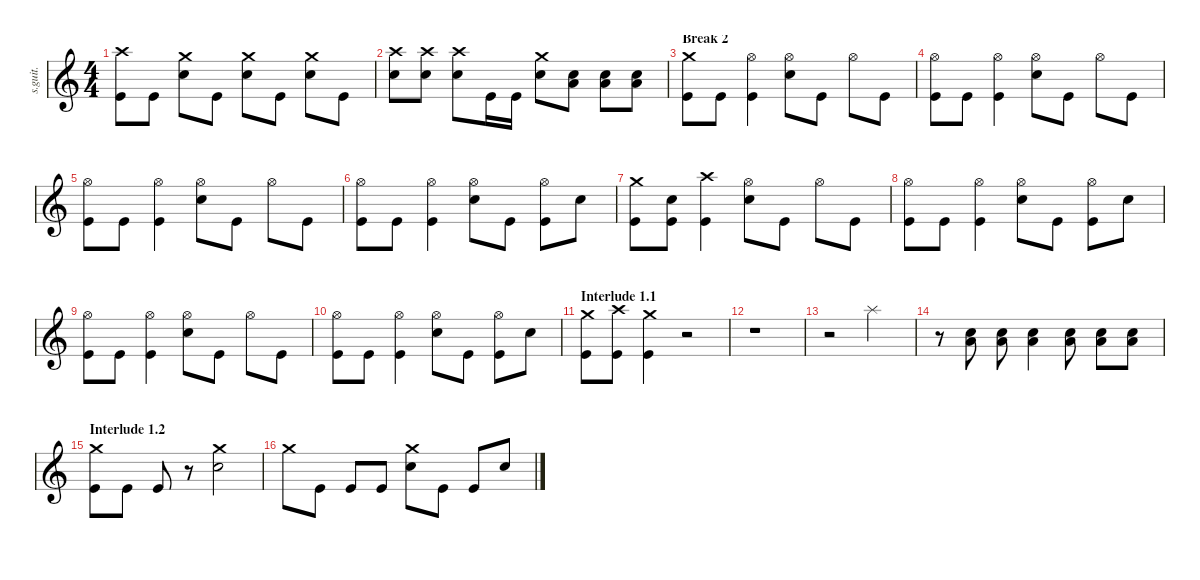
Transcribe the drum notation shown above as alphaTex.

\defaultSystemsLayout 4
\hideDynamics
\bracketExtendMode nobrackets
\track ("Joey Jordison" "s.guit.") {instrument percussion}
\staff {score}
\articulation defaults
\ts (4 4)
\tempo (210 hide)
\clef g2
\ks c
("Crash high (hit)" "Kick (hit)").8{lyrics (0 "") lyrics (1 "") lyrics (2 "") lyrics (3 "") lyrics (4 "") dy ff} "Kick (hit)".8{lyrics (0 "") lyrics (1 "") lyrics (2 "") lyrics (3 "") lyrics (4 "")} ("Crash medium (hit)" "Snare (hit) 2").8{lyrics (0 "") lyrics (1 "") lyrics (2 "") lyrics (3 "") lyrics (4 "")} "Kick (hit)".8{lyrics (0 "") lyrics (1 "") lyrics (2 "") lyrics (3 "") lyrics (4 "")} ("Crash medium (hit)" "Snare (hit) 2").8{lyrics (0 "") lyrics (1 "") lyrics (2 "") lyrics (3 "") lyrics (4 "")} "Kick (hit)".8{lyrics (0 "") lyrics (1 "") lyrics (2 "") lyrics (3 "") lyrics (4 "")} ("Crash medium (hit)" "Snare (hit) 2").8{lyrics (0 "") lyrics (1 "") lyrics (2 "") lyrics (3 "") lyrics (4 "")} "Kick (hit)".8{lyrics (0 "") lyrics (1 "") lyrics (2 "") lyrics (3 "") lyrics (4 "")} |
("Crash high (hit)" "Snare (hit) 2").8{lyrics (0 "") lyrics (1 "") lyrics (2 "") lyrics (3 "") lyrics (4 "")} ("Crash high (hit)" "Snare (hit) 2").8{lyrics (0 "") lyrics (1 "") lyrics (2 "") lyrics (3 "") lyrics (4 "")} ("Crash high (hit)" "Snare (hit) 2").8{lyrics (0 "") lyrics (1 "") lyrics (2 "") lyrics (3 "") lyrics (4 "")} "Kick (hit)".16{lyrics (0 "") lyrics (1 "") lyrics (2 "") lyrics (3 "") lyrics (4 "")} "Kick (hit)".16{lyrics (0 "") lyrics (1 "") lyrics (2 "") lyrics (3 "") lyrics (4 "")} ("Crash medium (hit)" "Snare (hit) 2").8{lyrics (0 "") lyrics (1 "") lyrics (2 "") lyrics (3 "") lyrics (4 "")} ("Snare (hit) 2" "Low Floor Tom (hit)").8{lyrics (0 "") lyrics (1 "") lyrics (2 "") lyrics (3 "") lyrics (4 "")} ("Snare (hit) 2" "Low Floor Tom (hit)").8{lyrics (0 "") lyrics (1 "") lyrics (2 "") lyrics (3 "") lyrics (4 "")} ("Snare (hit) 2" "Low Floor Tom (hit)").8{lyrics (0 "") lyrics (1 "") lyrics (2 "") lyrics (3 "") lyrics (4 "")} |
\section ("" "Break 2")
("Crash medium (hit)" "Kick (hit)").8{lyrics (0 "") lyrics (1 "") lyrics (2 "") lyrics (3 "") lyrics (4 "")} "Kick (hit)".8{lyrics (0 "") lyrics (1 "") lyrics (2 "") lyrics (3 "") lyrics (4 "")} ("Kick (hit)" "Hi-Hat (open)").4{lyrics (0 "") lyrics (1 "") lyrics (2 "") lyrics (3 "") lyrics (4 "")} ("Hi-Hat (open)" "Snare (hit) 2").8{lyrics (0 "") lyrics (1 "") lyrics (2 "") lyrics (3 "") lyrics (4 "")} "Kick (hit)".8{lyrics (0 "") lyrics (1 "") lyrics (2 "") lyrics (3 "") lyrics (4 "")} "Hi-Hat (open)".8{lyrics (0 "") lyrics (1 "") lyrics (2 "") lyrics (3 "") lyrics (4 "")} "Kick (hit)".8{lyrics (0 "") lyrics (1 "") lyrics (2 "") lyrics (3 "") lyrics (4 "")} |
("Hi-Hat (open)" "Kick (hit)").8{lyrics (0 "") lyrics (1 "") lyrics (2 "") lyrics (3 "") lyrics (4 "")} "Kick (hit)".8{lyrics (0 "") lyrics (1 "") lyrics (2 "") lyrics (3 "") lyrics (4 "")} ("Hi-Hat (open)" "Kick (hit)").4{lyrics (0 "") lyrics (1 "") lyrics (2 "") lyrics (3 "") lyrics (4 "")} ("Hi-Hat (open)" "Snare (hit) 2").8{lyrics (0 "") lyrics (1 "") lyrics (2 "") lyrics (3 "") lyrics (4 "")} "Kick (hit)".8{lyrics (0 "") lyrics (1 "") lyrics (2 "") lyrics (3 "") lyrics (4 "")} "Hi-Hat (open)".8{lyrics (0 "") lyrics (1 "") lyrics (2 "") lyrics (3 "") lyrics (4 "")} "Kick (hit)".8{lyrics (0 "") lyrics (1 "") lyrics (2 "") lyrics (3 "") lyrics (4 "")} |
("Hi-Hat (open)" "Kick (hit)").8{lyrics (0 "") lyrics (1 "") lyrics (2 "") lyrics (3 "") lyrics (4 "")} "Kick (hit)".8{lyrics (0 "") lyrics (1 "") lyrics (2 "") lyrics (3 "") lyrics (4 "")} ("Hi-Hat (open)" "Kick (hit)").4{lyrics (0 "") lyrics (1 "") lyrics (2 "") lyrics (3 "") lyrics (4 "")} ("Hi-Hat (open)" "Snare (hit) 2").8{lyrics (0 "") lyrics (1 "") lyrics (2 "") lyrics (3 "") lyrics (4 "")} "Kick (hit)".8{lyrics (0 "") lyrics (1 "") lyrics (2 "") lyrics (3 "") lyrics (4 "")} "Hi-Hat (open)".8{lyrics (0 "") lyrics (1 "") lyrics (2 "") lyrics (3 "") lyrics (4 "")} "Kick (hit)".8{lyrics (0 "") lyrics (1 "") lyrics (2 "") lyrics (3 "") lyrics (4 "")} |
("Hi-Hat (open)" "Kick (hit)").8{lyrics (0 "") lyrics (1 "") lyrics (2 "") lyrics (3 "") lyrics (4 "")} "Kick (hit)".8{lyrics (0 "") lyrics (1 "") lyrics (2 "") lyrics (3 "") lyrics (4 "")} ("Hi-Hat (open)" "Kick (hit)").4{lyrics (0 "") lyrics (1 "") lyrics (2 "") lyrics (3 "") lyrics (4 "")} ("Hi-Hat (open)" "Snare (hit) 2").8{lyrics (0 "") lyrics (1 "") lyrics (2 "") lyrics (3 "") lyrics (4 "")} "Kick (hit)".8{lyrics (0 "") lyrics (1 "") lyrics (2 "") lyrics (3 "") lyrics (4 "")} ("Hi-Hat (open)" "Kick (hit)").8{lyrics (0 "") lyrics (1 "") lyrics (2 "") lyrics (3 "") lyrics (4 "")} "Snare (hit) 2".8{lyrics (0 "") lyrics (1 "") lyrics (2 "") lyrics (3 "") lyrics (4 "")} |
("Crash medium (hit)" "Kick (hit)").8{lyrics (0 "") lyrics (1 "") lyrics (2 "") lyrics (3 "") lyrics (4 "")} ("Kick (hit)" "Snare (hit) 2").8{lyrics (0 "") lyrics (1 "") lyrics (2 "") lyrics (3 "") lyrics (4 "")} ("Crash high (hit)" "Kick (hit)").4{lyrics (0 "") lyrics (1 "") lyrics (2 "") lyrics (3 "") lyrics (4 "")} ("Hi-Hat (open)" "Snare (hit) 2").8{lyrics (0 "") lyrics (1 "") lyrics (2 "") lyrics (3 "") lyrics (4 "")} "Kick (hit)".8{lyrics (0 "") lyrics (1 "") lyrics (2 "") lyrics (3 "") lyrics (4 "")} "Hi-Hat (open)".8{lyrics (0 "") lyrics (1 "") lyrics (2 "") lyrics (3 "") lyrics (4 "")} "Kick (hit)".8{lyrics (0 "") lyrics (1 "") lyrics (2 "") lyrics (3 "") lyrics (4 "")} |
("Hi-Hat (open)" "Kick (hit)").8{lyrics (0 "") lyrics (1 "") lyrics (2 "") lyrics (3 "") lyrics (4 "")} "Kick (hit)".8{lyrics (0 "") lyrics (1 "") lyrics (2 "") lyrics (3 "") lyrics (4 "")} ("Hi-Hat (open)" "Kick (hit)").4{lyrics (0 "") lyrics (1 "") lyrics (2 "") lyrics (3 "") lyrics (4 "")} ("Hi-Hat (open)" "Snare (hit) 2").8{lyrics (0 "") lyrics (1 "") lyrics (2 "") lyrics (3 "") lyrics (4 "")} "Kick (hit)".8{lyrics (0 "") lyrics (1 "") lyrics (2 "") lyrics (3 "") lyrics (4 "")} ("Hi-Hat (open)" "Kick (hit)").8{lyrics (0 "") lyrics (1 "") lyrics (2 "") lyrics (3 "") lyrics (4 "")} "Snare (hit) 2".8{lyrics (0 "") lyrics (1 "") lyrics (2 "") lyrics (3 "") lyrics (4 "")} |
("Hi-Hat (open)" "Kick (hit)").8{lyrics (0 "") lyrics (1 "") lyrics (2 "") lyrics (3 "") lyrics (4 "")} "Kick (hit)".8{lyrics (0 "") lyrics (1 "") lyrics (2 "") lyrics (3 "") lyrics (4 "")} ("Hi-Hat (open)" "Kick (hit)").4{lyrics (0 "") lyrics (1 "") lyrics (2 "") lyrics (3 "") lyrics (4 "")} ("Hi-Hat (open)" "Snare (hit) 2").8{lyrics (0 "") lyrics (1 "") lyrics (2 "") lyrics (3 "") lyrics (4 "")} "Kick (hit)".8{lyrics (0 "") lyrics (1 "") lyrics (2 "") lyrics (3 "") lyrics (4 "")} "Hi-Hat (open)".8{lyrics (0 "") lyrics (1 "") lyrics (2 "") lyrics (3 "") lyrics (4 "")} "Kick (hit)".8{lyrics (0 "") lyrics (1 "") lyrics (2 "") lyrics (3 "") lyrics (4 "")} |
("Hi-Hat (open)" "Kick (hit)").8{lyrics (0 "") lyrics (1 "") lyrics (2 "") lyrics (3 "") lyrics (4 "")} "Kick (hit)".8{lyrics (0 "") lyrics (1 "") lyrics (2 "") lyrics (3 "") lyrics (4 "")} ("Hi-Hat (open)" "Kick (hit)").4{lyrics (0 "") lyrics (1 "") lyrics (2 "") lyrics (3 "") lyrics (4 "")} ("Hi-Hat (open)" "Snare (hit) 2").8{lyrics (0 "") lyrics (1 "") lyrics (2 "") lyrics (3 "") lyrics (4 "")} "Kick (hit)".8{lyrics (0 "") lyrics (1 "") lyrics (2 "") lyrics (3 "") lyrics (4 "")} ("Hi-Hat (open)" "Kick (hit)").8{lyrics (0 "") lyrics (1 "") lyrics (2 "") lyrics (3 "") lyrics (4 "")} "Snare (hit) 2".8{lyrics (0 "") lyrics (1 "") lyrics (2 "") lyrics (3 "") lyrics (4 "")} |
\section ("" "Interlude 1.1")
\tempo (200 hide)
("Crash medium (hit)" "Kick (hit)").8{lyrics (0 "") lyrics (1 "") lyrics (2 "") lyrics (3 "") lyrics (4 "")} ("Crash high (hit)" "Kick (hit)").8{lyrics (0 "") lyrics (1 "") lyrics (2 "") lyrics (3 "") lyrics (4 "")} ("Crash medium (hit)" "Kick (hit)").4{lyrics (0 "") lyrics (1 "") lyrics (2 "") lyrics (3 "") lyrics (4 "")} r.2 |
r.1 |
r.2 "Splash (hit)".2{lyrics (0 "") lyrics (1 "") lyrics (2 "") lyrics (3 "") lyrics (4 "")} |
r.8 ("Snare (hit) 2" "Low Floor Tom (hit)").8{lyrics (0 "") lyrics (1 "") lyrics (2 "") lyrics (3 "") lyrics (4 "")} ("Snare (hit) 2" "Low Floor Tom (hit)").8{lyrics (0 "") lyrics (1 "") lyrics (2 "") lyrics (3 "") lyrics (4 "")} ("Snare (hit) 2" "Low Floor Tom (hit)").4{lyrics (0 "") lyrics (1 "") lyrics (2 "") lyrics (3 "") lyrics (4 "")} ("Snare (hit) 2" "Low Floor Tom (hit)").8{lyrics (0 "") lyrics (1 "") lyrics (2 "") lyrics (3 "") lyrics (4 "")} ("Snare (hit) 2" "Low Floor Tom (hit)").8{lyrics (0 "") lyrics (1 "") lyrics (2 "") lyrics (3 "") lyrics (4 "")} ("Snare (hit) 2" "Low Floor Tom (hit)").8{lyrics (0 "") lyrics (1 "") lyrics (2 "") lyrics (3 "") lyrics (4 "")} |
\section ("" "Interlude 1.2")
("Crash medium (hit)" "Kick (hit)").8{lyrics (0 "") lyrics (1 "") lyrics (2 "") lyrics (3 "") lyrics (4 "")} "Kick (hit)".8{lyrics (0 "") lyrics (1 "") lyrics (2 "") lyrics (3 "") lyrics (4 "")} "Kick (hit)".8{lyrics (0 "") lyrics (1 "") lyrics (2 "") lyrics (3 "") lyrics (4 "")} r.8 ("Crash medium (hit)" "Snare (hit) 2").2{lyrics (0 "") lyrics (1 "") lyrics (2 "") lyrics (3 "") lyrics (4 "")} |
"Crash medium (hit)".8{lyrics (0 "") lyrics (1 "") lyrics (2 "") lyrics (3 "") lyrics (4 "")} "Kick (hit)".8{lyrics (0 "") lyrics (1 "") lyrics (2 "") lyrics (3 "") lyrics (4 "")} "Kick (hit)".8{lyrics (0 "") lyrics (1 "") lyrics (2 "") lyrics (3 "") lyrics (4 "")} "Kick (hit)".8{lyrics (0 "") lyrics (1 "") lyrics (2 "") lyrics (3 "") lyrics (4 "")} ("Crash medium (hit)" "Snare (hit) 2").8{lyrics (0 "") lyrics (1 "") lyrics (2 "") lyrics (3 "") lyrics (4 "")} "Kick (hit)".8{lyrics (0 "") lyrics (1 "") lyrics (2 "") lyrics (3 "") lyrics (4 "")} "Kick (hit)".8{lyrics (0 "") lyrics (1 "") lyrics (2 "") lyrics (3 "") lyrics (4 "")} "Snare (hit) 2".8{lyrics (0 "") lyrics (1 "") lyrics (2 "") lyrics (3 "") lyrics (4 "")}
